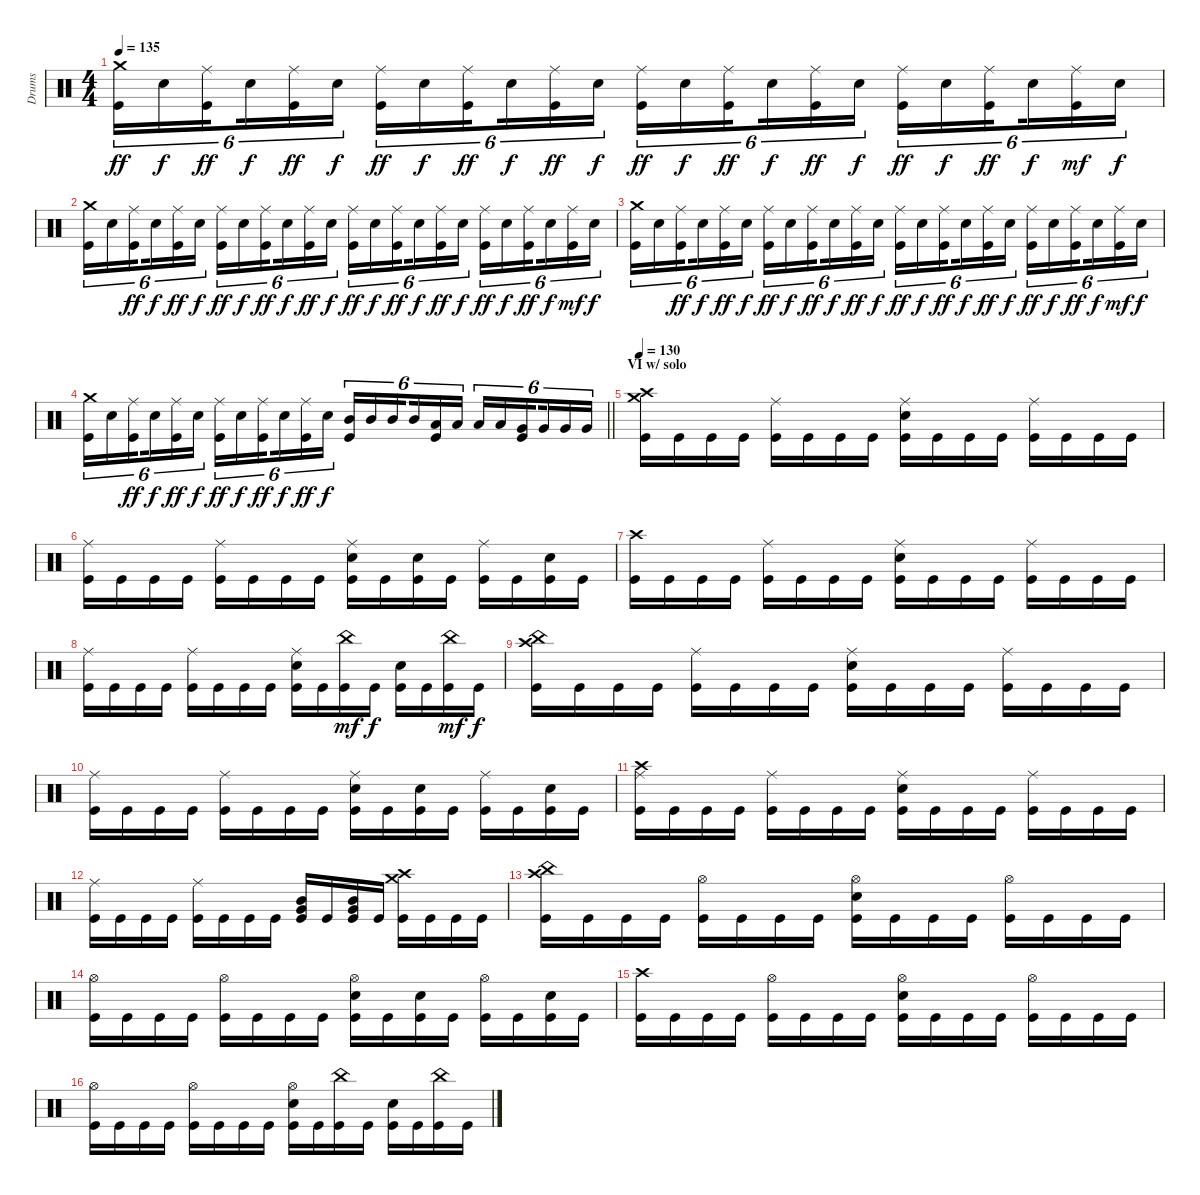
\track ("Drums" "Drums") {instrument percussion}
\staff {score}
\articulation defaults
\ts (4 4)
\tempo 135
\clef neutral
\ks c
("Kick (hit)" "Crash medium (hit)").16{tu (6 4) dy ff} "Electric Snare (hit)".16{tu (6 4) dy f} ("Kick (hit)" "Ride (middle)").16{tu (6 4) dy ff beam splitsecondary} "Electric Snare (hit)".16{tu (6 4) dy f} ("Kick (hit)" "Ride (middle)").16{tu (6 4) dy ff} "Electric Snare (hit)".16{tu (6 4) dy f} ("Kick (hit)" "Ride (middle)").16{tu (6 4) dy ff} "Electric Snare (hit)".16{tu (6 4) dy f} ("Kick (hit)" "Ride (middle)").16{tu (6 4) dy ff beam splitsecondary} "Electric Snare (hit)".16{tu (6 4) dy f} ("Kick (hit)" "Ride (middle)").16{tu (6 4) dy ff} "Electric Snare (hit)".16{tu (6 4) dy f} ("Kick (hit)" "Ride (middle)").16{tu (6 4) dy ff} "Electric Snare (hit)".16{tu (6 4) dy f} ("Kick (hit)" "Ride (middle)").16{tu (6 4) dy ff beam splitsecondary} "Electric Snare (hit)".16{tu (6 4) dy f} ("Kick (hit)" "Ride (middle)").16{tu (6 4) dy ff} "Electric Snare (hit)".16{tu (6 4) dy f} ("Kick (hit)" "Ride (middle)").16{tu (6 4) dy ff} "Electric Snare (hit)".16{tu (6 4) dy f} ("Kick (hit)" "Ride (middle)").16{tu (6 4) dy ff beam splitsecondary} "Electric Snare (hit)".16{tu (6 4) dy f} ("Kick (hit)" "Ride (middle)").16{tu (6 4) dy mf} "Electric Snare (hit)".16{tu (6 4) dy f} |
("Kick (hit)" "Crash medium (hit)").16{tu (6 4)} "Electric Snare (hit)".16{tu (6 4)} ("Kick (hit)" "Ride (middle)").16{tu (6 4) dy ff beam splitsecondary} "Electric Snare (hit)".16{tu (6 4) dy f} ("Kick (hit)" "Ride (middle)").16{tu (6 4) dy ff} "Electric Snare (hit)".16{tu (6 4) dy f} ("Kick (hit)" "Ride (middle)").16{tu (6 4) dy ff} "Electric Snare (hit)".16{tu (6 4) dy f} ("Kick (hit)" "Ride (middle)").16{tu (6 4) dy ff beam splitsecondary} "Electric Snare (hit)".16{tu (6 4) dy f} ("Kick (hit)" "Ride (middle)").16{tu (6 4) dy ff} "Electric Snare (hit)".16{tu (6 4) dy f} ("Kick (hit)" "Ride (middle)").16{tu (6 4) dy ff} "Electric Snare (hit)".16{tu (6 4) dy f} ("Kick (hit)" "Ride (middle)").16{tu (6 4) dy ff beam splitsecondary} "Electric Snare (hit)".16{tu (6 4) dy f} ("Kick (hit)" "Ride (middle)").16{tu (6 4) dy ff} "Electric Snare (hit)".16{tu (6 4) dy f} ("Kick (hit)" "Ride (middle)").16{tu (6 4) dy ff} "Electric Snare (hit)".16{tu (6 4) dy f} ("Kick (hit)" "Ride (middle)").16{tu (6 4) dy ff beam splitsecondary} "Electric Snare (hit)".16{tu (6 4) dy f} ("Kick (hit)" "Ride (middle)").16{tu (6 4) dy mf} "Electric Snare (hit)".16{tu (6 4) dy f} |
("Kick (hit)" "Crash medium (hit)").16{tu (6 4)} "Electric Snare (hit)".16{tu (6 4)} ("Kick (hit)" "Ride (middle)").16{tu (6 4) dy ff beam splitsecondary} "Electric Snare (hit)".16{tu (6 4) dy f} ("Kick (hit)" "Ride (middle)").16{tu (6 4) dy ff} "Electric Snare (hit)".16{tu (6 4) dy f} ("Kick (hit)" "Ride (middle)").16{tu (6 4) dy ff} "Electric Snare (hit)".16{tu (6 4) dy f} ("Kick (hit)" "Ride (middle)").16{tu (6 4) dy ff beam splitsecondary} "Electric Snare (hit)".16{tu (6 4) dy f} ("Kick (hit)" "Ride (middle)").16{tu (6 4) dy ff} "Electric Snare (hit)".16{tu (6 4) dy f} ("Kick (hit)" "Ride (middle)").16{tu (6 4) dy ff} "Electric Snare (hit)".16{tu (6 4) dy f} ("Kick (hit)" "Ride (middle)").16{tu (6 4) dy ff beam splitsecondary} "Electric Snare (hit)".16{tu (6 4) dy f} ("Kick (hit)" "Ride (middle)").16{tu (6 4) dy ff} "Electric Snare (hit)".16{tu (6 4) dy f} ("Kick (hit)" "Ride (middle)").16{tu (6 4) dy ff} "Electric Snare (hit)".16{tu (6 4) dy f} ("Kick (hit)" "Ride (middle)").16{tu (6 4) dy ff beam splitsecondary} "Electric Snare (hit)".16{tu (6 4) dy f} ("Kick (hit)" "Ride (middle)").16{tu (6 4) dy mf} "Electric Snare (hit)".16{tu (6 4) dy f} |
\barLineRight lightlight
("Kick (hit)" "Crash medium (hit)").16{tu (6 4)} "Electric Snare (hit)".16{tu (6 4)} ("Kick (hit)" "Ride (middle)").16{tu (6 4) dy ff beam splitsecondary} "Electric Snare (hit)".16{tu (6 4) dy f} ("Kick (hit)" "Ride (middle)").16{tu (6 4) dy ff} "Electric Snare (hit)".16{tu (6 4) dy f} ("Kick (hit)" "Ride (middle)").16{tu (6 4) dy ff} "Electric Snare (hit)".16{tu (6 4) dy f} ("Kick (hit)" "Ride (middle)").16{tu (6 4) dy ff beam splitsecondary} "Electric Snare (hit)".16{tu (6 4) dy f} ("Kick (hit)" "Ride (middle)").16{tu (6 4) dy ff} "Electric Snare (hit)".16{tu (6 4) dy f} ("Kick (hit)" "Mid Tom (hit)").16{tu (6 4)} "Mid Tom (hit)".16{tu (6 4)} "Mid Tom (hit)".16{tu (6 4) beam splitsecondary} "Mid Tom (hit)".16{tu (6 4)} ("Kick (hit)" "Low Tom (hit)").16{tu (6 4)} "Low Tom (hit)".16{tu (6 4)} "Low Tom (hit)".16{tu (6 4)} "Low Tom (hit)".16{tu (6 4)} ("Kick (hit)" "Very Low Tom (hit)").16{tu (6 4) beam splitsecondary} "Very Low Tom (hit)".16{tu (6 4)} "Very Low Tom (hit)".16{tu (6 4)} "Very Low Tom (hit)".16{tu (6 4)} |
\section ("" "VI w/ solo")
\tempo 130
("Kick (hit)" "Crash high (hit)" "Crash medium (hit)").16 "Kick (hit)".16 "Kick (hit)".16 "Kick (hit)".16 ("Kick (hit)" "Ride (middle)").16 "Kick (hit)".16 "Kick (hit)".16 "Kick (hit)".16 ("Kick (hit)" "Electric Snare (hit)" "Ride (middle)").16 "Kick (hit)".16 "Kick (hit)".16 "Kick (hit)".16 ("Kick (hit)" "Ride (middle)").16 "Kick (hit)".16 "Kick (hit)".16 "Kick (hit)".16 |
("Kick (hit)" "Ride (middle)").16 "Kick (hit)".16 "Kick (hit)".16 "Kick (hit)".16 ("Kick (hit)" "Ride (middle)").16 "Kick (hit)".16 "Kick (hit)".16 "Kick (hit)".16 ("Kick (hit)" "Electric Snare (hit)" "Ride (middle)").16 "Kick (hit)".16 ("Kick (hit)" "Electric Snare (hit)").16 "Kick (hit)".16 ("Kick (hit)" "Ride (middle)").16 "Kick (hit)".16 ("Kick (hit)" "Electric Snare (hit)").16 "Kick (hit)".16 |
("Kick (hit)" "Crash high (hit)").16 "Kick (hit)".16 "Kick (hit)".16 "Kick (hit)".16 ("Kick (hit)" "Ride (middle)").16 "Kick (hit)".16 "Kick (hit)".16 "Kick (hit)".16 ("Kick (hit)" "Electric Snare (hit)" "Ride (middle)").16 "Kick (hit)".16 "Kick (hit)".16 "Kick (hit)".16 ("Kick (hit)" "Ride (middle)").16 "Kick (hit)".16 "Kick (hit)".16 "Kick (hit)".16 |
("Kick (hit)" "Ride (middle)").16 "Kick (hit)".16 "Kick (hit)".16 "Kick (hit)".16 ("Kick (hit)" "Ride (middle)").16 "Kick (hit)".16 "Kick (hit)".16 "Kick (hit)".16 ("Kick (hit)" "Electric Snare (hit)" "Ride (middle)").16 "Kick (hit)".16 ("Kick (hit)" "China (hit)").16{dy mf} "Kick (hit)".16{dy f} ("Kick (hit)" "Electric Snare (hit)").16 "Kick (hit)".16 ("Kick (hit)" "China (hit)").16{dy mf} "Kick (hit)".16{dy f} |
("Kick (hit)" "China (hit)" "Crash high (hit)").16 "Kick (hit)".16 "Kick (hit)".16 "Kick (hit)".16 ("Kick (hit)" "Ride (middle)").16 "Kick (hit)".16 "Kick (hit)".16 "Kick (hit)".16 ("Kick (hit)" "Electric Snare (hit)" "Ride (middle)").16 "Kick (hit)".16 "Kick (hit)".16 "Kick (hit)".16 ("Kick (hit)" "Ride (middle)").16 "Kick (hit)".16 "Kick (hit)".16 "Kick (hit)".16 |
("Kick (hit)" "Ride (middle)").16 "Kick (hit)".16 "Kick (hit)".16 "Kick (hit)".16 ("Kick (hit)" "Ride (middle)").16 "Kick (hit)".16 "Kick (hit)".16 "Kick (hit)".16 ("Kick (hit)" "Electric Snare (hit)" "Ride (middle)").16 "Kick (hit)".16 ("Kick (hit)" "Electric Snare (hit)").16 "Kick (hit)".16 ("Kick (hit)" "Ride (middle)").16 "Kick (hit)".16 ("Kick (hit)" "Electric Snare (hit)").16 "Kick (hit)".16 |
("Kick (hit)" "Ride (middle)" "Crash high (hit)").16 "Kick (hit)".16 "Kick (hit)".16 "Kick (hit)".16 ("Kick (hit)" "Ride (middle)").16 "Kick (hit)".16 "Kick (hit)".16 "Kick (hit)".16 ("Kick (hit)" "Electric Snare (hit)" "Ride (middle)").16 "Kick (hit)".16 "Kick (hit)".16 "Kick (hit)".16 ("Kick (hit)" "Ride (middle)").16 "Kick (hit)".16 "Kick (hit)".16 "Kick (hit)".16 |
("Kick (hit)" "Ride (middle)").16 "Kick (hit)".16 "Kick (hit)".16 "Kick (hit)".16 ("Kick (hit)" "Ride (middle)").16 "Kick (hit)".16 "Kick (hit)".16 "Kick (hit)".16 ("Kick (hit)" "Very Low Tom (hit)" "Mid Tom (hit)").16 "Kick (hit)".16 ("Kick (hit)" "Very Low Tom (hit)" "Mid Tom (hit)").16 "Kick (hit)".16 ("Kick (hit)" "Crash medium (hit)" "Crash high (hit)").16 "Kick (hit)".16 "Kick (hit)".16 "Kick (hit)".16 |
("Kick (hit)" "Crash high (hit)" "China (hit)").16 "Kick (hit)".16 "Kick (hit)".16 "Kick (hit)".16 ("Kick (hit)" "Hi-Hat (open)").16 "Kick (hit)".16 "Kick (hit)".16 "Kick (hit)".16 ("Kick (hit)" "Electric Snare (hit)" "Hi-Hat (open)").16 "Kick (hit)".16 "Kick (hit)".16 "Kick (hit)".16 ("Kick (hit)" "Hi-Hat (open)").16 "Kick (hit)".16 "Kick (hit)".16 "Kick (hit)".16 |
("Kick (hit)" "Hi-Hat (open)").16 "Kick (hit)".16 "Kick (hit)".16 "Kick (hit)".16 ("Kick (hit)" "Hi-Hat (open)").16 "Kick (hit)".16 "Kick (hit)".16 "Kick (hit)".16 ("Kick (hit)" "Electric Snare (hit)" "Hi-Hat (open)").16 "Kick (hit)".16 ("Kick (hit)" "Electric Snare (hit)").16 "Kick (hit)".16 ("Kick (hit)" "Hi-Hat (open)").16 "Kick (hit)".16 ("Kick (hit)" "Electric Snare (hit)").16 "Kick (hit)".16 |
("Kick (hit)" "Crash high (hit)").16 "Kick (hit)".16 "Kick (hit)".16 "Kick (hit)".16 ("Kick (hit)" "Hi-Hat (open)").16 "Kick (hit)".16 "Kick (hit)".16 "Kick (hit)".16 ("Kick (hit)" "Electric Snare (hit)" "Hi-Hat (open)").16 "Kick (hit)".16 "Kick (hit)".16 "Kick (hit)".16 ("Kick (hit)" "Hi-Hat (open)").16 "Kick (hit)".16 "Kick (hit)".16 "Kick (hit)".16 |
("Kick (hit)" "Hi-Hat (open)").16 "Kick (hit)".16 "Kick (hit)".16 "Kick (hit)".16 ("Kick (hit)" "Hi-Hat (open)").16 "Kick (hit)".16 "Kick (hit)".16 "Kick (hit)".16 ("Kick (hit)" "Electric Snare (hit)" "Hi-Hat (open)").16 "Kick (hit)".16 ("Kick (hit)" "China (hit)").16 "Kick (hit)".16 ("Kick (hit)" "Electric Snare (hit)").16 "Kick (hit)".16 ("Kick (hit)" "China (hit)").16 "Kick (hit)".16
